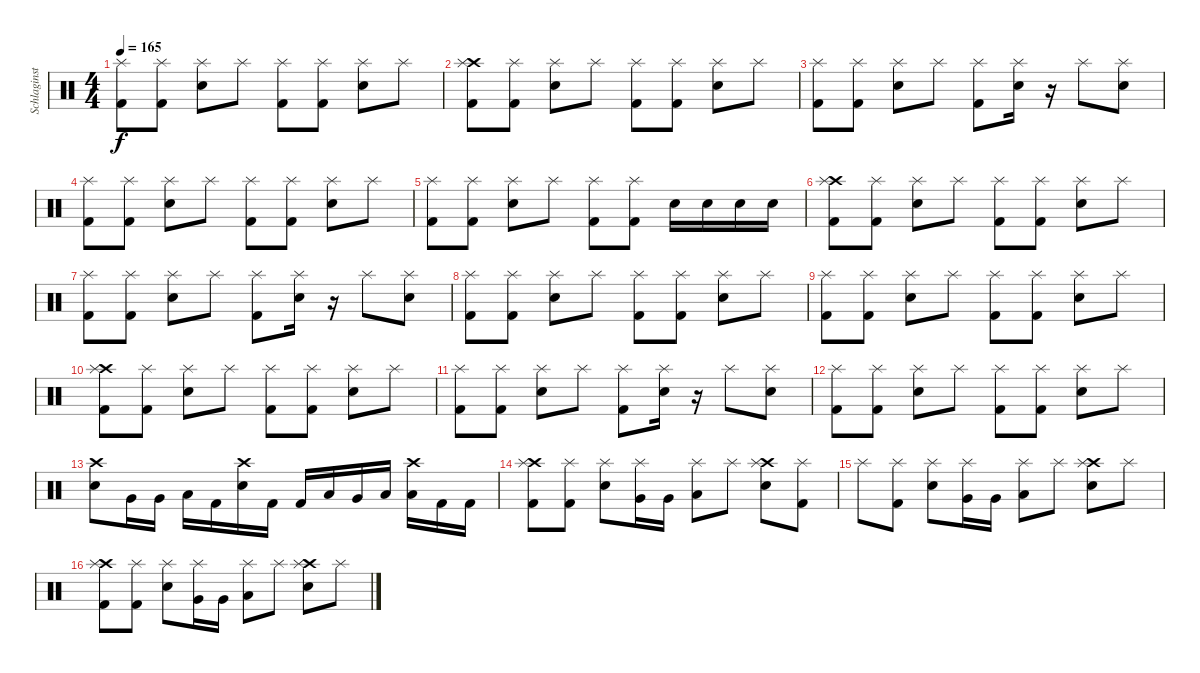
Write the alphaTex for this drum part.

\track ("Schlaginstrumente - Auswahl" "Schlaginst") {instrument percussion}
\staff {score}
\articulation defaults
\ts (4 4)
\tempo 165
\clef neutral
\ks c
("Splash (hit)" "Kick (hit) 2").8{dy f} ("Splash (hit)" "Kick (hit) 2").8 ("Splash (hit)" "Electric Snare (hit)").8 "Splash (hit)".8 ("Splash (hit)" "Kick (hit) 2").8 ("Splash (hit)" "Kick (hit) 2").8 ("Splash (hit)" "Electric Snare (hit)").8 "Splash (hit)".8 |
("Crash high (hit)" "Splash (hit)" "Kick (hit) 2").8 ("Splash (hit)" "Kick (hit) 2").8 ("Splash (hit)" "Electric Snare (hit)").8 "Splash (hit)".8 ("Splash (hit)" "Kick (hit) 2").8 ("Splash (hit)" "Kick (hit) 2").8 ("Splash (hit)" "Electric Snare (hit)").8 "Splash (hit)".8 |
("Splash (hit)" "Kick (hit) 2").8 ("Splash (hit)" "Kick (hit) 2").8 ("Splash (hit)" "Electric Snare (hit)").8 "Splash (hit)".8 ("Splash (hit)" "Kick (hit) 2").8 ("Splash (hit)" "Electric Snare (hit)").16 r.16 "Splash (hit)".8 ("Splash (hit)" "Electric Snare (hit)").8 |
("Splash (hit)" "Kick (hit) 2").8 ("Splash (hit)" "Kick (hit) 2").8 ("Splash (hit)" "Electric Snare (hit)").8 "Splash (hit)".8 ("Splash (hit)" "Kick (hit) 2").8 ("Splash (hit)" "Kick (hit) 2").8 ("Splash (hit)" "Electric Snare (hit)").8 "Splash (hit)".8 |
("Splash (hit)" "Kick (hit) 2").8 ("Splash (hit)" "Kick (hit) 2").8 ("Splash (hit)" "Electric Snare (hit)").8 "Splash (hit)".8 ("Splash (hit)" "Kick (hit) 2").8 ("Splash (hit)" "Kick (hit) 2").8 "Electric Snare (hit)".16 "Electric Snare (hit)".16 "Electric Snare (hit)".16 "Electric Snare (hit)".16 |
("Crash high (hit)" "Splash (hit)" "Kick (hit) 2").8 ("Splash (hit)" "Kick (hit) 2").8 ("Splash (hit)" "Electric Snare (hit)").8 "Splash (hit)".8 ("Splash (hit)" "Kick (hit) 2").8 ("Splash (hit)" "Kick (hit) 2").8 ("Splash (hit)" "Electric Snare (hit)").8 "Splash (hit)".8 |
("Splash (hit)" "Kick (hit) 2").8 ("Splash (hit)" "Kick (hit) 2").8 ("Splash (hit)" "Electric Snare (hit)").8 "Splash (hit)".8 ("Splash (hit)" "Kick (hit) 2").8 ("Splash (hit)" "Electric Snare (hit)").16 r.16 "Splash (hit)".8 ("Splash (hit)" "Electric Snare (hit)").8 |
("Splash (hit)" "Kick (hit) 2").8 ("Splash (hit)" "Kick (hit) 2").8 ("Splash (hit)" "Electric Snare (hit)").8 "Splash (hit)".8 ("Splash (hit)" "Kick (hit) 2").8 ("Splash (hit)" "Kick (hit) 2").8 ("Splash (hit)" "Electric Snare (hit)").8 "Splash (hit)".8 |
("Splash (hit)" "Kick (hit) 2").8 ("Splash (hit)" "Kick (hit) 2").8 ("Splash (hit)" "Electric Snare (hit)").8 "Splash (hit)".8 ("Splash (hit)" "Kick (hit) 2").8 ("Splash (hit)" "Kick (hit) 2").8 ("Splash (hit)" "Electric Snare (hit)").8 "Splash (hit)".8 |
("Crash high (hit)" "Splash (hit)" "Kick (hit) 2").8 ("Splash (hit)" "Kick (hit) 2").8 ("Splash (hit)" "Electric Snare (hit)").8 "Splash (hit)".8 ("Splash (hit)" "Kick (hit) 2").8 ("Splash (hit)" "Kick (hit) 2").8 ("Splash (hit)" "Electric Snare (hit)").8 "Splash (hit)".8 |
("Splash (hit)" "Kick (hit) 2").8 ("Splash (hit)" "Kick (hit) 2").8 ("Splash (hit)" "Electric Snare (hit)").8 "Splash (hit)".8 ("Splash (hit)" "Kick (hit) 2").8 ("Splash (hit)" "Electric Snare (hit)").16 r.16 "Splash (hit)".8 ("Splash (hit)" "Electric Snare (hit)").8 |
("Splash (hit)" "Kick (hit) 2").8 ("Splash (hit)" "Kick (hit) 2").8 ("Splash (hit)" "Electric Snare (hit)").8 "Splash (hit)".8 ("Splash (hit)" "Kick (hit) 2").8 ("Splash (hit)" "Kick (hit) 2").8 ("Splash (hit)" "Electric Snare (hit)").8 "Splash (hit)".8 |
("Crash high (hit)" "Electric Snare (hit)").8 "Very Low Tom (hit)".16 "Very Low Tom (hit)".16 "Low Floor Tom (hit)".16 "Kick (hit) 2".16 ("Crash high (hit)" "Electric Snare (hit)").16 "Kick (hit) 2".16 "Kick (hit) 2".16 "Low Tom (hit)".16 "Very Low Tom (hit)".16 "Low Floor Tom (hit)".16 ("Low Floor Tom (hit)" "Crash high (hit)").16 "Kick (hit) 2".16 "Kick (hit) 2".16 |
("Crash high (hit)" "Splash (hit)" "Kick (hit) 2").8 ("Splash (hit)" "Kick (hit) 2").8 ("Splash (hit)" "Electric Snare (hit)").8 ("Very Low Tom (hit)" "Splash (hit)").16 "Very Low Tom (hit)".16 ("Low Floor Tom (hit)" "Splash (hit)").8 "Splash (hit)".8 ("Crash high (hit)" "Splash (hit)" "Electric Snare (hit)").8 ("Splash (hit)" "Kick (hit) 2").8 |
"Splash (hit)".8 ("Splash (hit)" "Kick (hit) 2").8 ("Splash (hit)" "Electric Snare (hit)").8 ("Very Low Tom (hit)" "Splash (hit)").16 "Very Low Tom (hit)".16 ("Low Floor Tom (hit)" "Splash (hit)").8 "Splash (hit)".8 ("Crash high (hit)" "Splash (hit)" "Electric Snare (hit)").8 "Splash (hit)".8 |
("Crash high (hit)" "Splash (hit)" "Kick (hit) 2").8 ("Splash (hit)" "Kick (hit) 2").8 ("Splash (hit)" "Electric Snare (hit)").8 ("Very Low Tom (hit)" "Splash (hit)").16 "Very Low Tom (hit)".16 ("Low Floor Tom (hit)" "Splash (hit)").8 "Splash (hit)".8 ("Crash high (hit)" "Splash (hit)" "Electric Snare (hit)").8 "Splash (hit)".8
